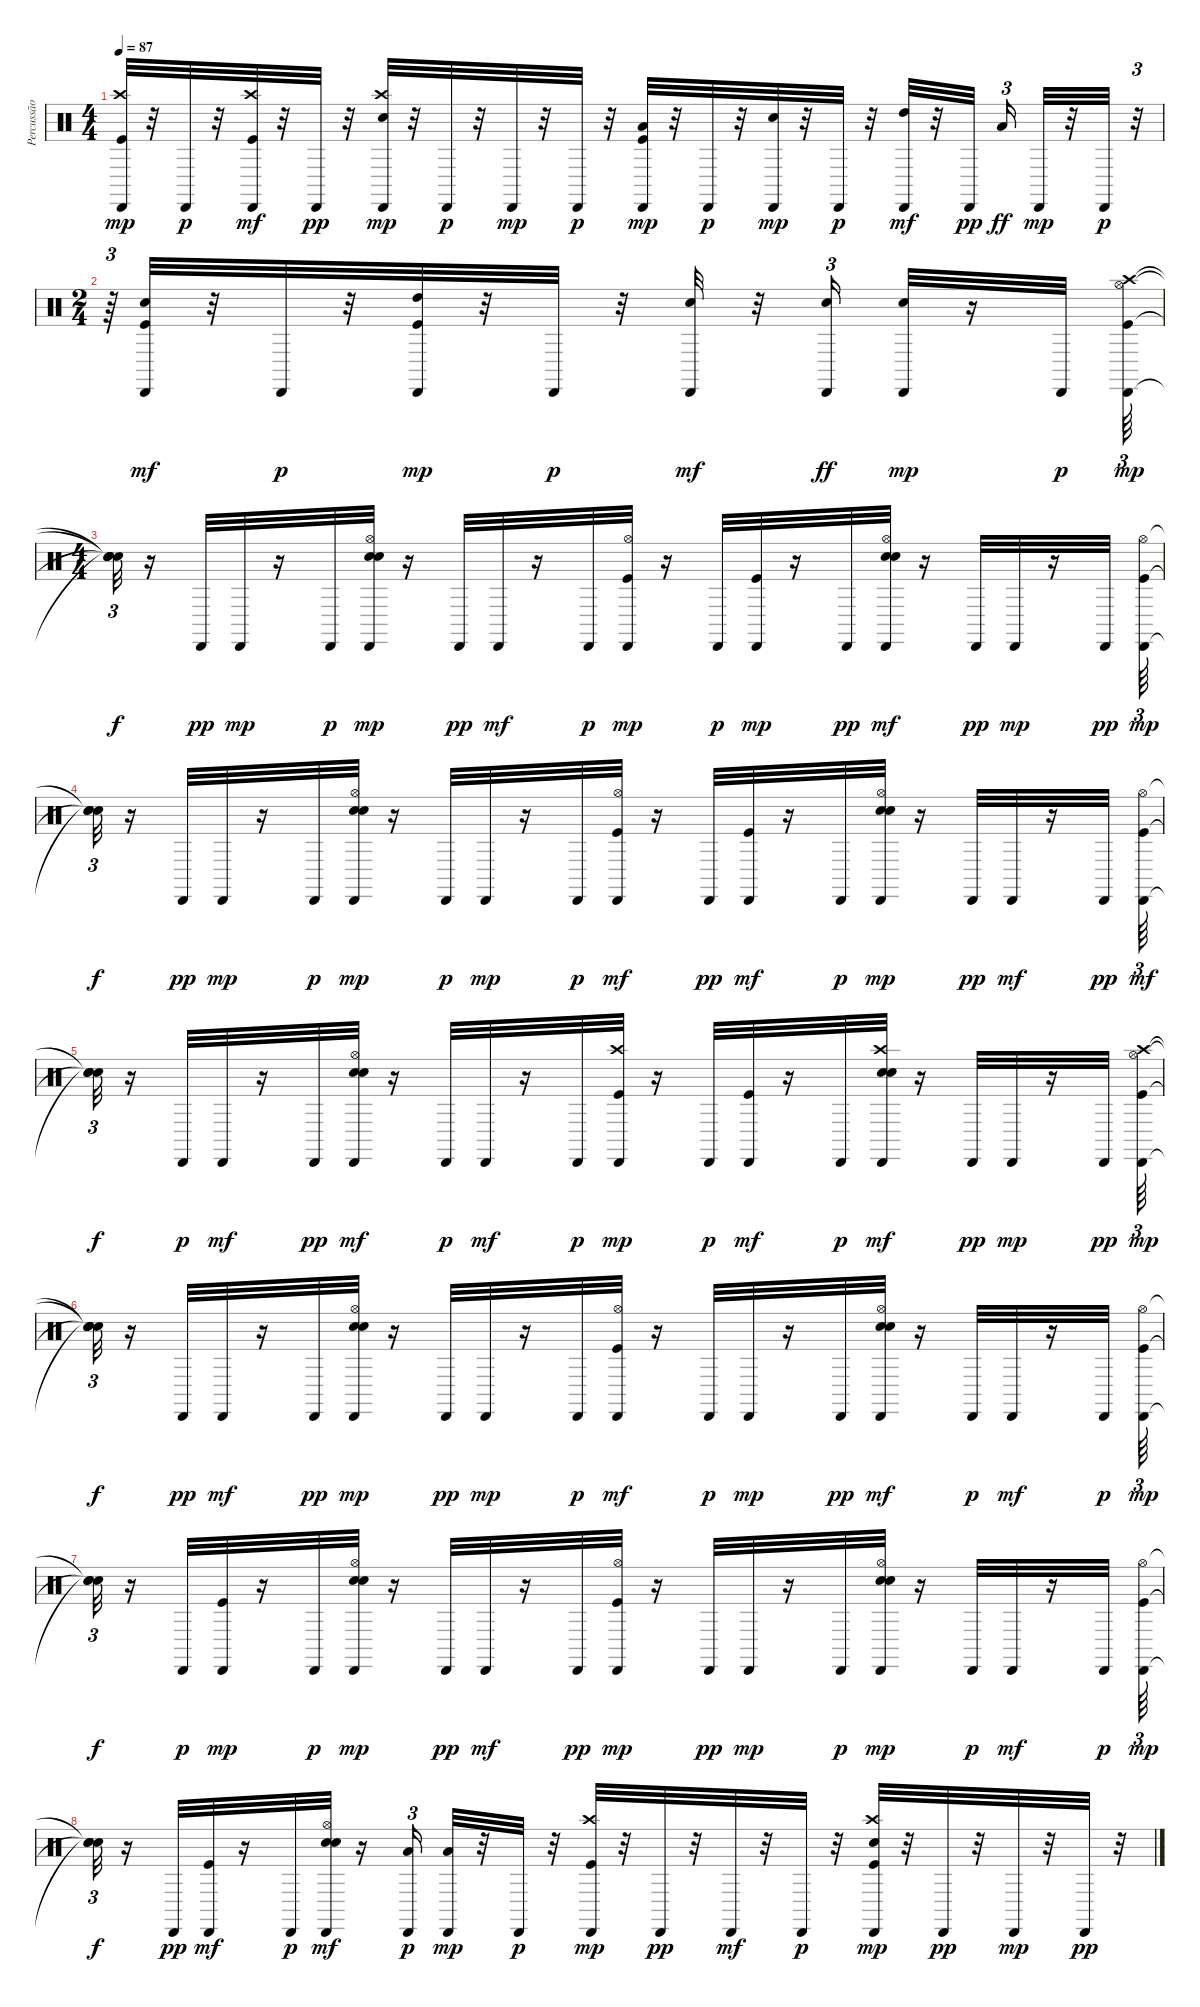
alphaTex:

\track ("Percussão" "Percussão") {instrument percussion}
\staff {score}
\articulation defaults
\ts (4 4)
\tempo 87
\clef neutral
\ks c
("Kick (hit)" "Crash high (hit)" "Cabasa (hit)").32{dy mp} r.32 "Cabasa (hit)".32{dy p} r.32 ("Kick (hit)" "Crash high (hit)" "Cabasa (hit)").32{dy mf} r.32 "Cabasa (hit)".32{dy pp} r.32 ("Electric Snare (hit)" "Crash high (hit)" "Cabasa (hit)").32{dy mp} r.32 "Cabasa (hit)".32{dy p} r.32 "Cabasa (hit)".32{dy mp} r.32 "Cabasa (hit)".32{dy p} r.32 ("Kick (hit)" "Low Tom (hit)" "Cabasa (hit)").32{dy mp} r.32 "Cabasa (hit)".32{dy p} r.32 ("Electric Snare (hit)" "Cabasa (hit)").32{dy mp} r.32 "Cabasa (hit)".32{dy p} r.32 ("High Tom (hit)" "Cabasa (hit)").32{dy mf} r.32 "Cabasa (hit)".32{dy pp beam splitsecondary} "Low Tom (hit)".16{tu (3 2) dy ff} "Cabasa (hit)".32{dy mp} r.32 "Cabasa (hit)".32{dy p} r.32{tu (3 2)} |
\ts (2 4)
r.64{tu (3 2)} ("Electric Snare (hit)" "Kick (hit)" "Cabasa (hit)").32{dy mf} r.32 "Cabasa (hit)".32{dy p} r.32 ("High Tom (hit)" "Kick (hit)" "Cabasa (hit)").32{dy mp} r.32 "Cabasa (hit)".32{dy p} r.32 ("Electric Snare (hit)" "Cabasa (hit)").32{dy mf} r.32 ("Cabasa (hit)" "Electric Snare (hit)").16{tu (3 2) dy ff} ("Electric Snare (hit)" "Cabasa (hit)").32{dy mp} r.16 "Cabasa (hit)".32{dy p} ("Kick (hit)" "Hi-Hat (open)" "Crash high (hit)" "Cabasa (hit)").64{tu (3 2) dy mp} |
\ts (4 4)
("Snare (hit)"{t} "Snare (hit)"{t} "Snare (hit)"{t} "Snare (hit)"{t}).32{tu (3 2) dy f} r.16 "Cabasa (hit)".32{dy pp} "Cabasa (hit)".32{dy mp} r.16 "Cabasa (hit)".32{dy p} ("Electric Snare (hit)" "Hi-Hat (open)" "Hand Clap (hit)" "Cabasa (hit)").32{dy mp} r.16 "Cabasa (hit)".32{dy pp} "Cabasa (hit)".32{dy mf} r.16 "Cabasa (hit)".32{dy p} ("Kick (hit)" "Hi-Hat (open)" "Cabasa (hit)").32{dy mp} r.16 "Cabasa (hit)".32{dy p} ("Kick (hit)" "Cabasa (hit)").32{dy mp} r.16 "Cabasa (hit)".32{dy pp} ("Electric Snare (hit)" "Hi-Hat (open)" "Hand Clap (hit)" "Cabasa (hit)").32{dy mf} r.16 "Cabasa (hit)".32{dy pp} "Cabasa (hit)".32{dy mp} r.16 "Cabasa (hit)".32{dy pp} ("Kick (hit)" "Hi-Hat (open)" "Cabasa (hit)").64{tu (3 2) dy mp} |
("Snare (hit)"{t} "Snare (hit)"{t} "Snare (hit)"{t}).32{tu (3 2) dy f} r.16 "Cabasa (hit)".32{dy pp} "Cabasa (hit)".32{dy mp} r.16 "Cabasa (hit)".32{dy p} ("Electric Snare (hit)" "Hi-Hat (open)" "Hand Clap (hit)" "Cabasa (hit)").32{dy mp} r.16 "Cabasa (hit)".32{dy p} "Cabasa (hit)".32{dy mp} r.16 "Cabasa (hit)".32{dy p} ("Kick (hit)" "Hi-Hat (open)" "Cabasa (hit)").32{dy mf} r.16 "Cabasa (hit)".32{dy pp} ("Kick (hit)" "Cabasa (hit)").32{dy mf} r.16 "Cabasa (hit)".32{dy p} ("Electric Snare (hit)" "Hi-Hat (open)" "Hand Clap (hit)" "Cabasa (hit)").32{dy mp} r.16 "Cabasa (hit)".32{dy pp} "Cabasa (hit)".32{dy mf} r.16 "Cabasa (hit)".32{dy pp} ("Kick (hit)" "Hi-Hat (open)" "Cabasa (hit)").64{tu (3 2) dy mf} |
("Snare (hit)"{t} "Snare (hit)"{t} "Snare (hit)"{t}).32{tu (3 2) dy f} r.16 "Cabasa (hit)".32{dy p} "Cabasa (hit)".32{dy mf} r.16 "Cabasa (hit)".32{dy pp} ("Electric Snare (hit)" "Hi-Hat (open)" "Hand Clap (hit)" "Cabasa (hit)").32{dy mf} r.16 "Cabasa (hit)".32{dy p} "Cabasa (hit)".32{dy mf} r.16 "Cabasa (hit)".32{dy p} ("Kick (hit)" "Crash high (hit)" "Cabasa (hit)").32{dy mp} r.16 "Cabasa (hit)".32{dy p} ("Kick (hit)" "Cabasa (hit)").32{dy mf} r.16 "Cabasa (hit)".32{dy p} ("Electric Snare (hit)" "Crash high (hit)" "Hand Clap (hit)" "Cabasa (hit)").32{dy mf} r.16 "Cabasa (hit)".32{dy pp} "Cabasa (hit)".32{dy mp} r.16 "Cabasa (hit)".32{dy pp} ("Kick (hit)" "Hi-Hat (open)" "Crash high (hit)" "Cabasa (hit)").64{tu (3 2) dy mp} |
("Snare (hit)"{t} "Snare (hit)"{t} "Snare (hit)"{t} "Snare (hit)"{t}).32{tu (3 2) dy f} r.16 "Cabasa (hit)".32{dy pp} "Cabasa (hit)".32{dy mf} r.16 "Cabasa (hit)".32{dy pp} ("Electric Snare (hit)" "Hi-Hat (open)" "Hand Clap (hit)" "Cabasa (hit)").32{dy mp} r.16 "Cabasa (hit)".32{dy pp} "Cabasa (hit)".32{dy mp} r.16 "Cabasa (hit)".32{dy p} ("Kick (hit)" "Hi-Hat (open)" "Cabasa (hit)").32{dy mf} r.16 "Cabasa (hit)".32{dy p} "Cabasa (hit)".32{dy mp} r.16 "Cabasa (hit)".32{dy pp} ("Electric Snare (hit)" "Hi-Hat (open)" "Hand Clap (hit)" "Cabasa (hit)").32{dy mf} r.16 "Cabasa (hit)".32{dy p} "Cabasa (hit)".32{dy mf} r.16 "Cabasa (hit)".32{dy p} ("Kick (hit)" "Hi-Hat (open)" "Cabasa (hit)").64{tu (3 2) dy mp} |
("Snare (hit)"{t} "Snare (hit)"{t} "Snare (hit)"{t}).32{tu (3 2) dy f} r.16 "Cabasa (hit)".32{dy p} ("Kick (hit)" "Cabasa (hit)").32{dy mp} r.16 "Cabasa (hit)".32{dy p} ("Electric Snare (hit)" "Hi-Hat (open)" "Hand Clap (hit)" "Cabasa (hit)").32{dy mp} r.16 "Cabasa (hit)".32{dy pp} "Cabasa (hit)".32{dy mf} r.16 "Cabasa (hit)".32{dy pp} ("Kick (hit)" "Hi-Hat (open)" "Cabasa (hit)").32{dy mp} r.16 "Cabasa (hit)".32{dy pp} "Cabasa (hit)".32{dy mp} r.16 "Cabasa (hit)".32{dy p} ("Electric Snare (hit)" "Hi-Hat (open)" "Hand Clap (hit)" "Cabasa (hit)").32{dy mp} r.16 "Cabasa (hit)".32{dy p} "Cabasa (hit)".32{dy mf} r.16 "Cabasa (hit)".32{dy p} ("Kick (hit)" "Hi-Hat (open)" "Cabasa (hit)").64{tu (3 2) dy mp} |
("Snare (hit)"{t} "Snare (hit)"{t} "Snare (hit)"{t}).32{tu (3 2) dy f} r.16 "Cabasa (hit)".32{dy pp} ("Kick (hit)" "Cabasa (hit)").32{dy mf} r.16 "Cabasa (hit)".32{dy p} ("Electric Snare (hit)" "Hi-Hat (open)" "Hand Clap (hit)" "Cabasa (hit)").32{dy mf} r.16 ("Cabasa (hit)" "Low Tom (hit)").16{tu (3 2) dy p} ("Low Tom (hit)" "Cabasa (hit)").32{dy mp} r.32 "Cabasa (hit)".32{dy p} r.32 ("Kick (hit)" "Crash high (hit)" "Cabasa (hit)").32{dy mp} r.32 "Cabasa (hit)".32{dy pp} r.32 "Cabasa (hit)".32{dy mf} r.32 "Cabasa (hit)".32{dy p} r.32 ("Kick (hit)" "Electric Snare (hit)" "Crash high (hit)" "Cabasa (hit)").32{dy mp} r.32 "Cabasa (hit)".32{dy pp} r.32 "Cabasa (hit)".32{dy mp} r.32 "Cabasa (hit)".32{dy pp} r.32
